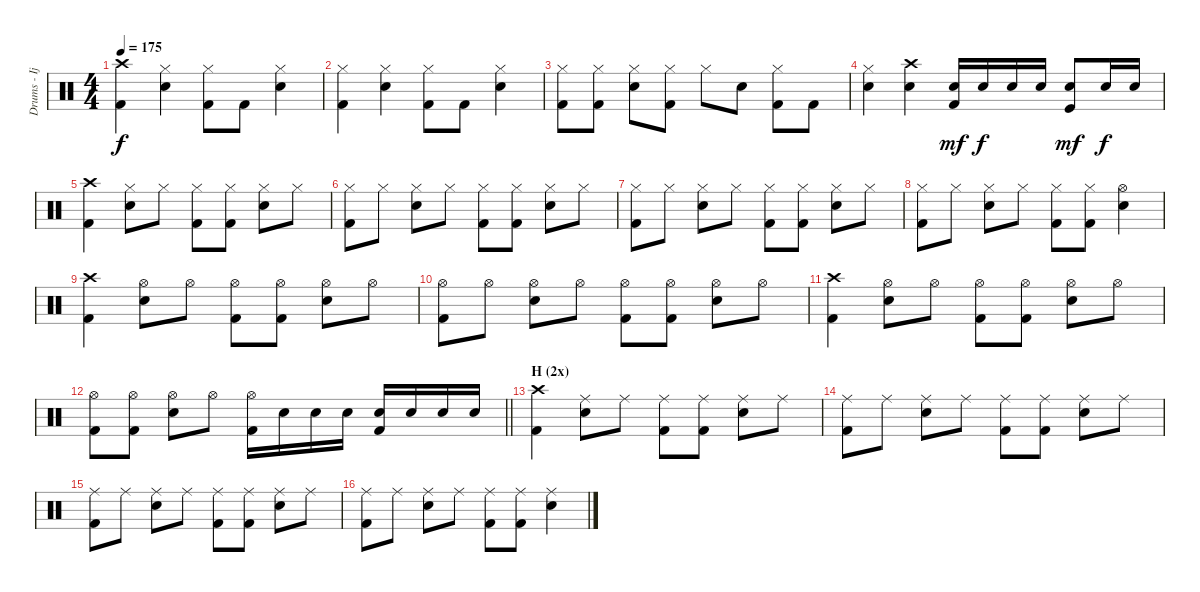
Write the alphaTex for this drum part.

\track ("Drums - Ijichi" "Drums - Ij") {instrument percussion}
\staff {score}
\articulation defaults
\ts (4 4)
\tempo 175
\clef neutral
\ks c
("Crash high (hit)" "Kick (hit) 2").4{dy f} ("Hi-Hat (closed)" "Snare (hit) 2").4 ("Hi-Hat (closed)" "Kick (hit) 2").8 "Kick (hit) 2".8 ("Hi-Hat (closed)" "Snare (hit) 2").4 |
("Hi-Hat (closed)" "Kick (hit) 2").4 ("Hi-Hat (closed)" "Snare (hit) 2").4 ("Hi-Hat (closed)" "Kick (hit) 2").8 "Kick (hit) 2".8 ("Hi-Hat (closed)" "Snare (hit) 2").4 |
("Hi-Hat (closed)" "Kick (hit) 2").8 ("Hi-Hat (closed)" "Kick (hit) 2").8 ("Hi-Hat (closed)" "Snare (hit) 2").8 ("Hi-Hat (closed)" "Kick (hit) 2").8 "Hi-Hat (closed)".8 "Snare (hit) 2".8 ("Hi-Hat (closed)" "Kick (hit) 2").8 "Kick (hit) 2".8 |
("Hi-Hat (closed)" "Snare (hit) 2").4 ("Crash high (hit)" "Snare (hit) 2").4 ("Snare (hit) 2" "Kick (hit) 2").16{dy mf} "Snare (hit) 2".16{dy f} "Snare (hit) 2".16 "Snare (hit) 2".16 ("Snare (hit) 2" "Kick (hit)").8{dy mf} "Snare (hit) 2".16{dy f} "Snare (hit) 2".16 |
("Crash high (hit)" "Kick (hit) 2").4 ("Hi-Hat (closed)" "Snare (hit) 2").8 "Hi-Hat (closed)".8 ("Hi-Hat (closed)" "Kick (hit) 2").8 ("Hi-Hat (closed)" "Kick (hit) 2").8 ("Hi-Hat (closed)" "Snare (hit) 2").8 "Hi-Hat (closed)".8 |
("Hi-Hat (closed)" "Kick (hit) 2").8 "Hi-Hat (closed)".8 ("Hi-Hat (closed)" "Snare (hit) 2").8 "Hi-Hat (closed)".8 ("Hi-Hat (closed)" "Kick (hit) 2").8 ("Hi-Hat (closed)" "Kick (hit) 2").8 ("Hi-Hat (closed)" "Snare (hit) 2").8 "Hi-Hat (closed)".8 |
("Hi-Hat (closed)" "Kick (hit) 2").8 "Hi-Hat (closed)".8 ("Hi-Hat (closed)" "Snare (hit) 2").8 "Hi-Hat (closed)".8 ("Hi-Hat (closed)" "Kick (hit) 2").8 ("Hi-Hat (closed)" "Kick (hit) 2").8 ("Hi-Hat (closed)" "Snare (hit) 2").8 "Hi-Hat (closed)".8 |
("Hi-Hat (closed)" "Kick (hit) 2").8 "Hi-Hat (closed)".8 ("Hi-Hat (closed)" "Snare (hit) 2").8 "Hi-Hat (closed)".8 ("Hi-Hat (closed)" "Kick (hit) 2").8 ("Hi-Hat (closed)" "Kick (hit) 2").8 ("Hi-Hat (open)" "Snare (hit) 2").4 |
("Crash high (hit)" "Kick (hit) 2").4 ("Hi-Hat (open)" "Snare (hit) 2").8 "Hi-Hat (open)".8 ("Hi-Hat (open)" "Kick (hit) 2").8 ("Hi-Hat (open)" "Kick (hit) 2").8 ("Hi-Hat (open)" "Snare (hit) 2").8 "Hi-Hat (open)".8 |
("Hi-Hat (open)" "Kick (hit) 2").8 "Hi-Hat (open)".8 ("Hi-Hat (open)" "Snare (hit) 2").8 "Hi-Hat (open)".8 ("Hi-Hat (open)" "Kick (hit) 2").8 ("Hi-Hat (open)" "Kick (hit) 2").8 ("Hi-Hat (open)" "Snare (hit) 2").8 "Hi-Hat (open)".8 |
("Crash high (hit)" "Kick (hit) 2").4 ("Hi-Hat (open)" "Snare (hit) 2").8 "Hi-Hat (open)".8 ("Hi-Hat (open)" "Kick (hit) 2").8 ("Hi-Hat (open)" "Kick (hit) 2").8 ("Hi-Hat (open)" "Snare (hit) 2").8 "Hi-Hat (open)".8 |
\barLineRight lightlight
("Hi-Hat (open)" "Kick (hit) 2").8 ("Hi-Hat (open)" "Kick (hit) 2").8 ("Hi-Hat (open)" "Snare (hit) 2").8 "Hi-Hat (open)".8 ("Hi-Hat (open)" "Kick (hit) 2").16 "Snare (hit) 2".16 "Snare (hit) 2".16 "Snare (hit) 2".16 ("Snare (hit) 2" "Kick (hit) 2").16 "Snare (hit) 2".16 "Snare (hit) 2".16 "Snare (hit) 2".16 |
\section ("" "H (2x)")
("Crash high (hit)" "Kick (hit) 2").4 ("Ride (middle)" "Snare (hit) 2").8 "Ride (middle)".8 ("Ride (middle)" "Kick (hit) 2").8 ("Ride (middle)" "Kick (hit) 2").8 ("Ride (middle)" "Snare (hit) 2").8 "Ride (middle)".8 |
("Ride (middle)" "Kick (hit) 2").8 "Ride (middle)".8 ("Ride (middle)" "Snare (hit) 2").8 "Ride (middle)".8 ("Ride (middle)" "Kick (hit) 2").8 ("Ride (middle)" "Kick (hit) 2").8 ("Ride (middle)" "Snare (hit) 2").8 "Ride (middle)".8 |
("Ride (middle)" "Kick (hit) 2").8 "Ride (middle)".8 ("Ride (middle)" "Snare (hit) 2").8 "Ride (middle)".8 ("Ride (middle)" "Kick (hit) 2").8 ("Ride (middle)" "Kick (hit) 2").8 ("Ride (middle)" "Snare (hit) 2").8 "Ride (middle)".8 |
("Ride (middle)" "Kick (hit) 2").8 "Ride (middle)".8 ("Ride (middle)" "Snare (hit) 2").8 "Ride (middle)".8 ("Ride (middle)" "Kick (hit) 2").8 ("Ride (middle)" "Kick (hit) 2").8 ("Ride (middle)" "Snare (hit) 2").4
